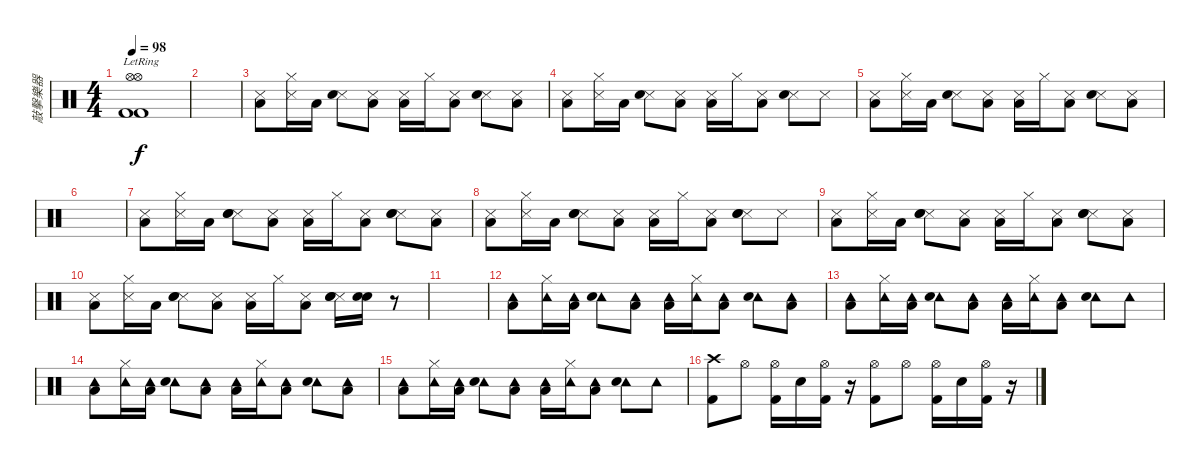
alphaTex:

\track ("敲擊樂器" "敲擊樂器") {instrument percussion}
\staff {score}
\articulation defaults
\ts (4 4)
\tempo 98
\clef neutral
\ks c
("Hi-Hat (open)"{lr} "Hi-Hat (open)"{lr} "Kick (hit) 2"{lr} "Kick (hit) 2"{lr}).1{dy f} |
|
("Snare (side stick) 3" "Low Floor Tom (hit)").8{volume 7 balance 8} ("Snare (side stick) 3" "Hi-Hat (closed)").16 "Low Floor Tom (hit)".16 ("Snare (side stick) 3" "Electric Snare (hit)").8 ("Snare (side stick) 3" "Low Floor Tom (hit)").8 ("Snare (side stick) 3" "Low Floor Tom (hit)").16 "Hi-Hat (closed)".16 ("Snare (side stick) 3" "Low Floor Tom (hit)").8 ("Snare (side stick) 3" "Electric Snare (hit)").8 ("Snare (side stick) 3" "Low Floor Tom (hit)").8 |
("Snare (side stick) 3" "Low Floor Tom (hit)").8 ("Snare (side stick) 3" "Hi-Hat (closed)").16 "Low Floor Tom (hit)".16 ("Snare (side stick) 3" "Electric Snare (hit)").8 ("Snare (side stick) 3" "Low Floor Tom (hit)").8 ("Snare (side stick) 3" "Low Floor Tom (hit)").16 "Hi-Hat (closed)".16 ("Snare (side stick) 3" "Low Floor Tom (hit)").8 ("Snare (side stick) 3" "Electric Snare (hit)").8 "Snare (side stick) 3".8 |
("Snare (side stick) 3" "Low Floor Tom (hit)").8 ("Snare (side stick) 3" "Hi-Hat (closed)").16 "Low Floor Tom (hit)".16 ("Snare (side stick) 3" "Electric Snare (hit)").8 ("Snare (side stick) 3" "Low Floor Tom (hit)").8 ("Snare (side stick) 3" "Low Floor Tom (hit)").16 "Hi-Hat (closed)".16 ("Snare (side stick) 3" "Low Floor Tom (hit)").8 ("Snare (side stick) 3" "Electric Snare (hit)").8 ("Snare (side stick) 3" "Low Floor Tom (hit)").8 |
|
("Snare (side stick) 3" "Low Floor Tom (hit)").8 ("Snare (side stick) 3" "Hi-Hat (closed)").16 "Low Floor Tom (hit)".16 ("Snare (side stick) 3" "Electric Snare (hit)" "Electric Snare (hit)").8 ("Snare (side stick) 3" "Low Floor Tom (hit)").8 ("Snare (side stick) 3" "Low Floor Tom (hit)").16 "Hi-Hat (closed)".16 ("Snare (side stick) 3" "Low Floor Tom (hit)").8 ("Snare (side stick) 3" "Electric Snare (hit)" "Electric Snare (hit)").8 ("Snare (side stick) 3" "Low Floor Tom (hit)").8 |
("Snare (side stick) 3" "Low Floor Tom (hit)").8 ("Snare (side stick) 3" "Hi-Hat (closed)").16 "Low Floor Tom (hit)".16 ("Snare (side stick) 3" "Electric Snare (hit)" "Electric Snare (hit)").8 ("Snare (side stick) 3" "Low Floor Tom (hit)").8 ("Snare (side stick) 3" "Low Floor Tom (hit)").16 "Hi-Hat (closed)".16 ("Snare (side stick) 3" "Low Floor Tom (hit)").8 ("Snare (side stick) 3" "Electric Snare (hit)" "Electric Snare (hit)").8 "Snare (side stick) 3".8 |
("Snare (side stick) 3" "Low Floor Tom (hit)").8 ("Snare (side stick) 3" "Hi-Hat (closed)").16 "Low Floor Tom (hit)".16 ("Snare (side stick) 3" "Electric Snare (hit)" "Electric Snare (hit)").8 ("Snare (side stick) 3" "Low Floor Tom (hit)").8 ("Snare (side stick) 3" "Low Floor Tom (hit)").16 "Hi-Hat (closed)".16 ("Snare (side stick) 3" "Low Floor Tom (hit)").8 ("Snare (side stick) 3" "Electric Snare (hit)" "Electric Snare (hit)").8 ("Snare (side stick) 3" "Low Floor Tom (hit)").8 |
("Snare (side stick) 3" "Low Floor Tom (hit)").8 ("Snare (side stick) 3" "Hi-Hat (closed)").16 "Low Floor Tom (hit)".16 ("Snare (side stick) 3" "Electric Snare (hit)" "Electric Snare (hit)").8 ("Snare (side stick) 3" "Low Floor Tom (hit)").8 ("Snare (side stick) 3" "Low Floor Tom (hit)").16 "Hi-Hat (closed)".16 ("Snare (side stick) 3" "Low Floor Tom (hit)").8 ("Snare (side stick) 3" "Electric Snare (hit)" "Electric Snare (hit)").16 ("Electric Snare (hit)" "Electric Snare (hit)").16 r.8 |
|
("Tambourine (hit)" "Low Floor Tom (hit)").8{volume 5} ("Tambourine (hit)" "Hi-Hat (closed)").16 ("Tambourine (hit)" "Low Floor Tom (hit)").16 ("Tambourine (hit)" "Electric Snare (hit)").8 ("Tambourine (hit)" "Low Floor Tom (hit)").8 ("Tambourine (hit)" "Low Floor Tom (hit)").16 ("Tambourine (hit)" "Hi-Hat (closed)").16 ("Tambourine (hit)" "Low Floor Tom (hit)").8 ("Tambourine (hit)" "Electric Snare (hit)").8 ("Tambourine (hit)" "Low Floor Tom (hit)").8 |
("Tambourine (hit)" "Low Floor Tom (hit)").8 ("Tambourine (hit)" "Hi-Hat (closed)").16 ("Tambourine (hit)" "Low Floor Tom (hit)").16 ("Tambourine (hit)" "Electric Snare (hit)").8 ("Tambourine (hit)" "Low Floor Tom (hit)").8 ("Tambourine (hit)" "Low Floor Tom (hit)").16 ("Tambourine (hit)" "Hi-Hat (closed)").16 ("Tambourine (hit)" "Low Floor Tom (hit)").8 ("Tambourine (hit)" "Electric Snare (hit)").8 "Tambourine (hit)".8 |
("Tambourine (hit)" "Low Floor Tom (hit)").8 ("Tambourine (hit)" "Hi-Hat (closed)").16 ("Tambourine (hit)" "Low Floor Tom (hit)").16 ("Tambourine (hit)" "Electric Snare (hit)").8 ("Tambourine (hit)" "Low Floor Tom (hit)").8 ("Tambourine (hit)" "Low Floor Tom (hit)").16 ("Tambourine (hit)" "Hi-Hat (closed)").16 ("Tambourine (hit)" "Low Floor Tom (hit)").8 ("Tambourine (hit)" "Electric Snare (hit)").8 ("Tambourine (hit)" "Low Floor Tom (hit)").8 |
("Tambourine (hit)" "Low Floor Tom (hit)").8 ("Tambourine (hit)" "Hi-Hat (closed)").16 ("Tambourine (hit)" "Low Floor Tom (hit)").16 ("Tambourine (hit)" "Electric Snare (hit)").8 ("Tambourine (hit)" "Low Floor Tom (hit)").8 ("Tambourine (hit)" "Low Floor Tom (hit)").16 ("Tambourine (hit)" "Hi-Hat (closed)").16 ("Tambourine (hit)" "Low Floor Tom (hit)").8 ("Tambourine (hit)" "Electric Snare (hit)").8 "Tambourine (hit)".8 |
("Kick (hit) 2" "Crash high (hit)").8{balance 8} "Hi-Hat (open)".8 ("Kick (hit) 2" "Hi-Hat (open)").16 "Snare (hit) 2".16 ("Kick (hit) 2" "Hi-Hat (open)").16 r.16 ("Kick (hit) 2" "Hi-Hat (open)").8 "Hi-Hat (open)".8 ("Kick (hit) 2" "Hi-Hat (open)").16 "Snare (hit) 2".16 ("Kick (hit) 2" "Hi-Hat (open)").16 r.16
